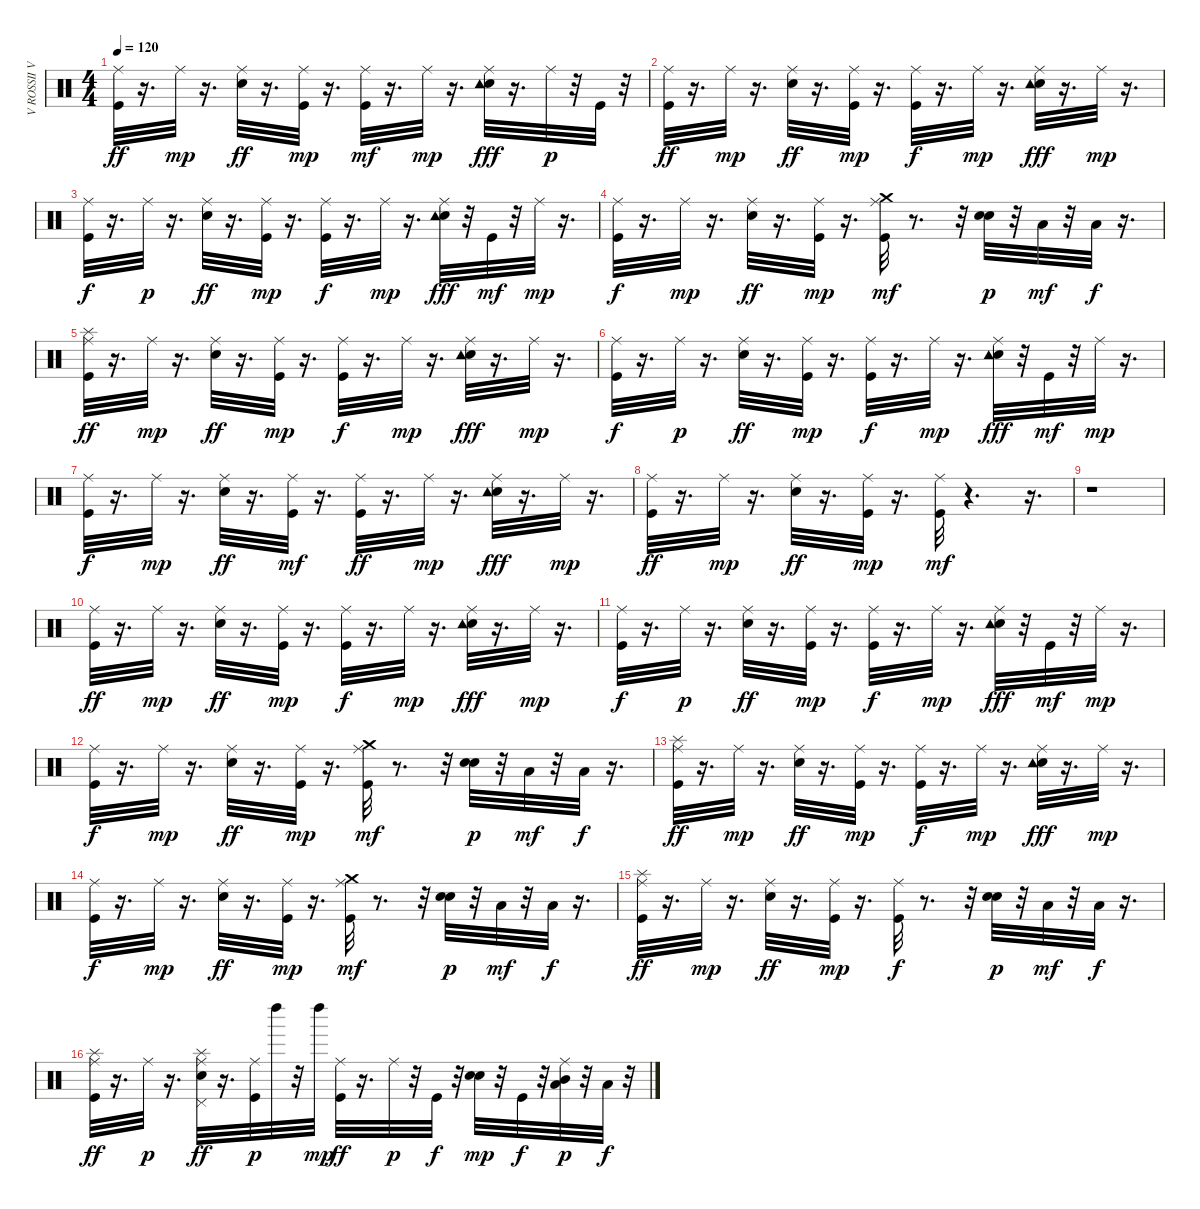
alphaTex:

\track ("V ROSSII VECHERA     " "V ROSSII V") {instrument percussion}
\staff {score}
\articulation defaults
\ts (4 4)
\tempo 120
\clef neutral
\ks c
("Kick (hit)" "Ride (middle)").32{dy ff} r.16{d} "Ride (middle)".32{dy mp} r.16{d} ("Snare (hit) 2" "Ride (middle)").32{dy ff} r.16{d} ("Kick (hit)" "Ride (middle)").32{dy mp} r.16{d} ("Kick (hit)" "Ride (middle)").32{dy mf} r.16{d} "Ride (middle)".32{dy mp} r.16{d} ("Snare (hit) 2" "Ride (middle)" "Tambourine (hit)").32{dy fff} r.16{d} "Ride (middle)".32{dy p} r.32 "Kick (hit)".32 r.32 |
("Ride (middle)" "Kick (hit)").32{dy ff} r.16{d} "Ride (middle)".32{dy mp} r.16{d} ("Snare (hit) 2" "Ride (middle)").32{dy ff} r.16{d} ("Kick (hit)" "Ride (middle)").32{dy mp} r.16{d} ("Kick (hit)" "Ride (middle)").32{dy f} r.16{d} "Ride (middle)".32{dy mp} r.16{d} ("Snare (hit) 2" "Ride (middle)" "Tambourine (hit)").32{dy fff} r.16{d} "Ride (middle)".32{dy mp} r.16{d} |
("Ride (middle)" "Kick (hit)").32{dy f} r.16{d} "Ride (middle)".32{dy p} r.16{d} ("Snare (hit) 2" "Ride (middle)").32{dy ff} r.16{d} ("Ride (middle)" "Kick (hit)").32{dy mp} r.16{d} ("Ride (middle)" "Kick (hit)").32{dy f} r.16{d} "Ride (middle)".32{dy mp} r.16{d} ("Snare (hit) 2" "Ride (middle)" "Tambourine (hit)").32{dy fff} r.32 "Kick (hit)".32{dy mf} r.32 "Ride (middle)".32{dy mp} r.16{d} |
("Kick (hit)" "Ride (middle)").32{dy f} r.16{d} "Ride (middle)".32{dy mp} r.16{d} ("Snare (hit) 2" "Ride (middle)").32{dy ff} r.16{d} ("Kick (hit)" "Ride (middle)").32{dy mp} r.16{d} ("Crash medium (hit)" "Kick (hit)" "Ride (middle)").32{dy mf} r.8{d} r.32 ("Snare (hit) 2" "Snare (hit) 2").32{dy p} r.32 "Low Tom (hit)".32{dy mf} r.32 "Low Floor Tom (hit)".32{dy f} r.16{d} |
("Splash (hit)" "Ride (middle)" "Kick (hit)").32{dy ff} r.16{d} "Ride (middle)".32{dy mp} r.16{d} ("Snare (hit) 2" "Ride (middle)").32{dy ff} r.16{d} ("Kick (hit)" "Ride (middle)").32{dy mp} r.16{d} ("Kick (hit)" "Ride (middle)").32{dy f} r.16{d} "Ride (middle)".32{dy mp} r.16{d} ("Snare (hit) 2" "Ride (middle)" "Tambourine (hit)").32{dy fff} r.16{d} "Ride (middle)".32{dy mp} r.16{d} |
("Ride (middle)" "Kick (hit)").32{dy f} r.16{d} "Ride (middle)".32{dy p} r.16{d} ("Snare (hit) 2" "Ride (middle)").32{dy ff} r.16{d} ("Ride (middle)" "Kick (hit)").32{dy mp} r.16{d} ("Ride (middle)" "Kick (hit)").32{dy f} r.16{d} "Ride (middle)".32{dy mp} r.16{d} ("Snare (hit) 2" "Ride (middle)" "Tambourine (hit)").32{dy fff} r.32 "Kick (hit)".32{dy mf} r.32 "Ride (middle)".32{dy mp} r.16{d} |
("Kick (hit)" "Ride (middle)").32{dy f} r.16{d} "Ride (middle)".32{dy mp} r.16{d} ("Snare (hit) 2" "Ride (middle)").32{dy ff} r.16{d} ("Ride (middle)" "Kick (hit)").32{dy mf} r.16{d} ("Ride (middle)" "Kick (hit)").32{dy ff} r.16{d} "Ride (middle)".32{dy mp} r.16{d} ("Snare (hit) 2" "Ride (middle)" "Tambourine (hit)").32{dy fff} r.16{d} "Ride (middle)".32{dy mp} r.16{d} |
("Kick (hit)" "Ride (middle)").32{dy ff} r.16{d} "Ride (middle)".32{dy mp} r.16{d} ("Snare (hit) 2" "Ride (middle)").32{dy ff} r.16{d} ("Kick (hit)" "Ride (middle)").32{dy mp} r.16{d} ("Kick (hit)" "Ride (middle)").32{dy mf} r.4{d} r.16{d} |
r.1 |
("Ride (middle)" "Kick (hit)").32{dy ff} r.16{d} "Ride (middle)".32{dy mp} r.16{d} ("Snare (hit) 2" "Ride (middle)").32{dy ff} r.16{d} ("Kick (hit)" "Ride (middle)").32{dy mp} r.16{d} ("Kick (hit)" "Ride (middle)").32{dy f} r.16{d} "Ride (middle)".32{dy mp} r.16{d} ("Snare (hit) 2" "Ride (middle)" "Tambourine (hit)").32{dy fff} r.16{d} "Ride (middle)".32{dy mp} r.16{d} |
("Ride (middle)" "Kick (hit)").32{dy f} r.16{d} "Ride (middle)".32{dy p} r.16{d} ("Snare (hit) 2" "Ride (middle)").32{dy ff} r.16{d} ("Ride (middle)" "Kick (hit)").32{dy mp} r.16{d} ("Ride (middle)" "Kick (hit)").32{dy f} r.16{d} "Ride (middle)".32{dy mp} r.16{d} ("Snare (hit) 2" "Ride (middle)" "Tambourine (hit)").32{dy fff} r.32 "Kick (hit)".32{dy mf} r.32 "Ride (middle)".32{dy mp} r.16{d} |
("Kick (hit)" "Ride (middle)").32{dy f} r.16{d} "Ride (middle)".32{dy mp} r.16{d} ("Snare (hit) 2" "Ride (middle)").32{dy ff} r.16{d} ("Kick (hit)" "Ride (middle)").32{dy mp} r.16{d} ("Crash medium (hit)" "Kick (hit)" "Ride (middle)").32{dy mf} r.8{d} r.32 ("Snare (hit) 2" "Snare (hit) 2").32{dy p} r.32 "Low Tom (hit)".32{dy mf} r.32 "Low Floor Tom (hit)".32{dy f} r.16{d} |
("Splash (hit)" "Ride (middle)" "Kick (hit)").32{dy ff} r.16{d} "Ride (middle)".32{dy mp} r.16{d} ("Snare (hit) 2" "Ride (middle)").32{dy ff} r.16{d} ("Kick (hit)" "Ride (middle)").32{dy mp} r.16{d} ("Kick (hit)" "Ride (middle)").32{dy f} r.16{d} "Ride (middle)".32{dy mp} r.16{d} ("Snare (hit) 2" "Ride (middle)" "Tambourine (hit)").32{dy fff} r.16{d} "Ride (middle)".32{dy mp} r.16{d} |
("Ride (middle)" "Kick (hit)").32{dy f} r.16{d} "Ride (middle)".32{dy mp} r.16{d} ("Snare (hit) 2" "Ride (middle)").32{dy ff} r.16{d} ("Kick (hit)" "Ride (middle)").32{dy mp} r.16{d} ("Crash medium (hit)" "Kick (hit)" "Ride (middle)").32{dy mf} r.8{d} r.32 ("Snare (hit) 2" "Snare (hit) 2").32{dy p} r.32 "Low Tom (hit)".32{dy mf} r.32 "Low Floor Tom (hit)".32{dy f} r.16{d} |
("Splash (hit)" "Ride (middle)" "Kick (hit)").32{dy ff} r.16{d} "Ride (middle)".32{dy mp} r.16{d} ("Snare (hit) 2" "Ride (middle)").32{dy ff} r.16{d} ("Kick (hit)" "Ride (middle)").32{dy mp} r.16{d} ("Kick (hit)" "Ride (middle)").32{dy f} r.8{d} r.32 ("Snare (hit) 2" "Snare (hit) 2").32{dy p} r.32 "Low Tom (hit)".32{dy mf} r.32 "Low Floor Tom (hit)".32{dy f} r.16{d} |
("Splash (hit)" "Ride (middle)" "Kick (hit)").32{dy ff} r.16{d} "Ride (middle)".32{dy p} r.16{d} ("Splash (hit)" "Pedal Hi-Hat (hit)" "Ride (middle)" "Electric Snare (hit)").32{dy ff} r.16{d} ("Kick (hit)" "Ride (middle)").32{dy p} "Left Maraca (hit)".32 r.32 "Left Maraca (hit)".32{dy mp} ("Ride (middle)" "Kick (hit)").32{dy ff} r.16{d} "Ride (middle)".32{dy p} r.32 "Kick (hit)".32{dy f} r.32 ("Electric Snare (hit)" "Electric Snare (hit)").32{dy mp} r.32 "Kick (hit)".32{dy f} r.32 ("Mid Tom (hit)" "Ride (middle)" "Low Tom (hit)").32{dy p} r.32 "Low Floor Tom (hit)".32{dy f} r.32
